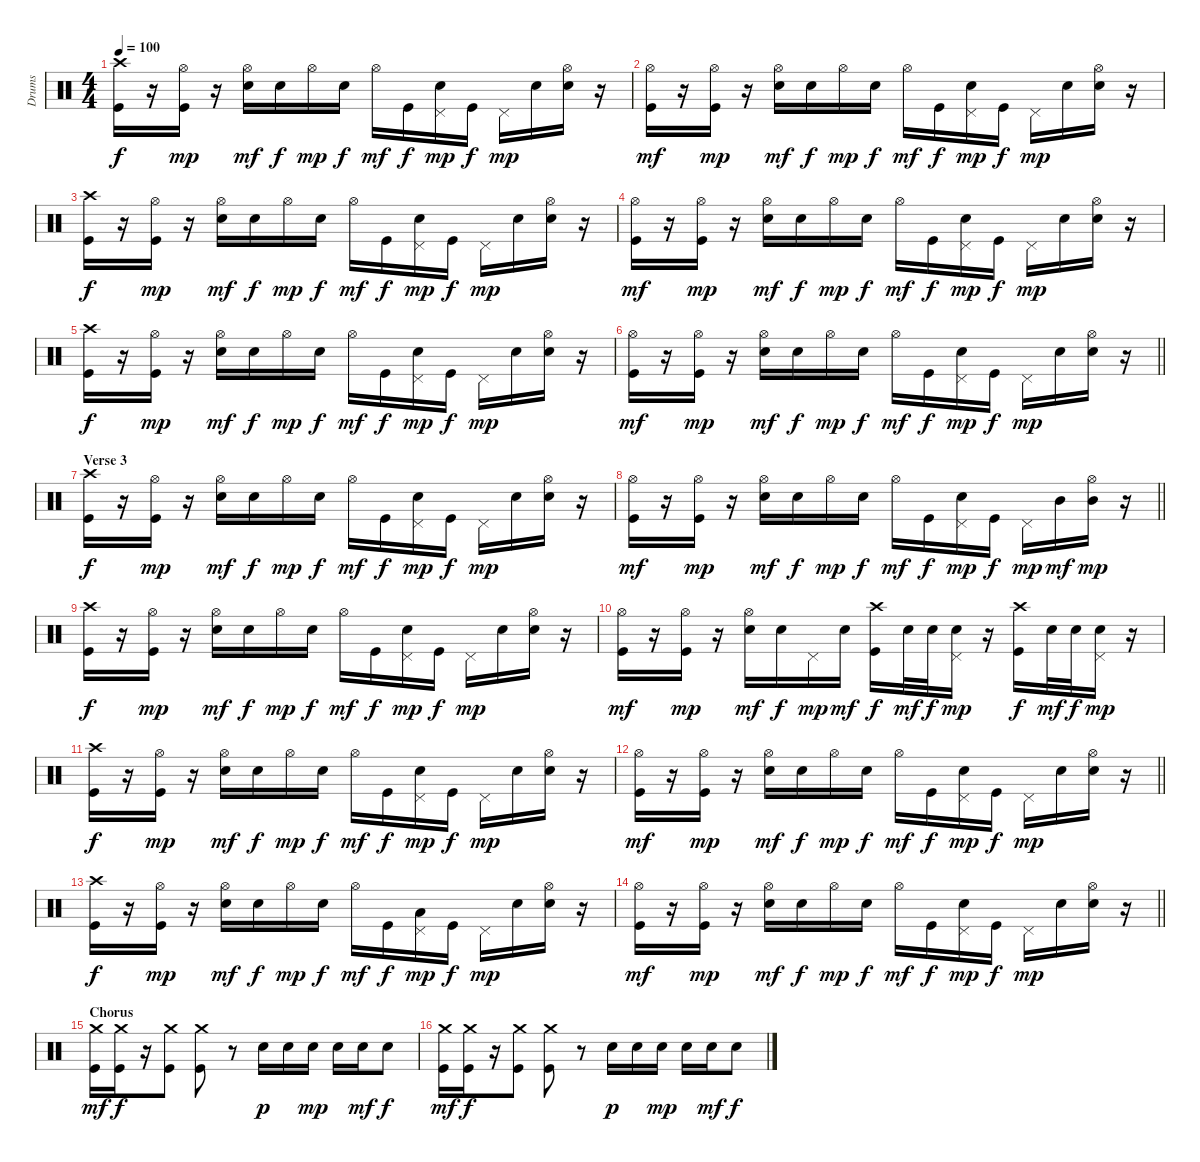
\track ("Drums" "Drums") {instrument percussion}
\staff {score}
\articulation defaults
\ts (4 4)
\tempo 100
\clef neutral
\ks c
("Crash high (hit)" "Kick (hit)").16{dy f} r.16 ("Hi-Hat (open)" "Kick (hit)").16{dy mp} r.16 ("Hi-Hat (open)" "Snare (hit) 2").16{dy mf} "Snare (hit) 2".16{dy f} "Hi-Hat (open)".16{dy mp} "Snare (hit) 2".16{dy f} "Hi-Hat (open)".16{dy mf} "Kick (hit)".16{dy f} ("Pedal Hi-Hat (hit)" "Snare (hit) 2").16{dy mp} "Kick (hit)".16{dy f} "Pedal Hi-Hat (hit)".16{dy mp} "Snare (hit) 2".16 ("Hi-Hat (open)" "Snare (hit) 2").16 r.16 |
("Hi-Hat (open)" "Kick (hit)").16{dy mf} r.16 ("Hi-Hat (open)" "Kick (hit)").16{dy mp} r.16 ("Hi-Hat (open)" "Snare (hit) 2").16{dy mf} "Snare (hit) 2".16{dy f} "Hi-Hat (open)".16{dy mp} "Snare (hit) 2".16{dy f} "Hi-Hat (open)".16{dy mf} "Kick (hit)".16{dy f} ("Pedal Hi-Hat (hit)" "Snare (hit) 2").16{dy mp} "Kick (hit)".16{dy f} "Pedal Hi-Hat (hit)".16{dy mp} "Snare (hit) 2".16 ("Hi-Hat (open)" "Snare (hit) 2").16 r.16 |
("Crash high (hit)" "Kick (hit)").16{dy f} r.16 ("Hi-Hat (open)" "Kick (hit)").16{dy mp} r.16 ("Hi-Hat (open)" "Snare (hit) 2").16{dy mf} "Snare (hit) 2".16{dy f} "Hi-Hat (open)".16{dy mp} "Snare (hit) 2".16{dy f} "Hi-Hat (open)".16{dy mf} "Kick (hit)".16{dy f} ("Pedal Hi-Hat (hit)" "Snare (hit) 2").16{dy mp} "Kick (hit)".16{dy f} "Pedal Hi-Hat (hit)".16{dy mp} "Snare (hit) 2".16 ("Hi-Hat (open)" "Snare (hit) 2").16 r.16 |
("Hi-Hat (open)" "Kick (hit)").16{dy mf} r.16 ("Hi-Hat (open)" "Kick (hit)").16{dy mp} r.16 ("Hi-Hat (open)" "Snare (hit) 2").16{dy mf} "Snare (hit) 2".16{dy f} "Hi-Hat (open)".16{dy mp} "Snare (hit) 2".16{dy f} "Hi-Hat (open)".16{dy mf} "Kick (hit)".16{dy f} ("Pedal Hi-Hat (hit)" "Snare (hit) 2").16{dy mp} "Kick (hit)".16{dy f} "Pedal Hi-Hat (hit)".16{dy mp} "Snare (hit) 2".16 ("Hi-Hat (open)" "Snare (hit) 2").16 r.16 |
("Crash high (hit)" "Kick (hit)").16{dy f} r.16 ("Hi-Hat (open)" "Kick (hit)").16{dy mp} r.16 ("Hi-Hat (open)" "Snare (hit) 2").16{dy mf} "Snare (hit) 2".16{dy f} "Hi-Hat (open)".16{dy mp} "Snare (hit) 2".16{dy f} "Hi-Hat (open)".16{dy mf} "Kick (hit)".16{dy f} ("Pedal Hi-Hat (hit)" "Snare (hit) 2").16{dy mp} "Kick (hit)".16{dy f} "Pedal Hi-Hat (hit)".16{dy mp} "Snare (hit) 2".16 ("Hi-Hat (open)" "Snare (hit) 2").16 r.16 |
\barLineRight lightlight
("Hi-Hat (open)" "Kick (hit)").16{dy mf} r.16 ("Hi-Hat (open)" "Kick (hit)").16{dy mp} r.16 ("Hi-Hat (open)" "Snare (hit) 2").16{dy mf} "Snare (hit) 2".16{dy f} "Hi-Hat (open)".16{dy mp} "Snare (hit) 2".16{dy f} "Hi-Hat (open)".16{dy mf} "Kick (hit)".16{dy f} ("Pedal Hi-Hat (hit)" "Snare (hit) 2").16{dy mp} "Kick (hit)".16{dy f} "Pedal Hi-Hat (hit)".16{dy mp} "Snare (hit) 2".16 ("Hi-Hat (open)" "Snare (hit) 2").16 r.16 |
\section ("" "Verse 3")
("Crash high (hit)" "Kick (hit)").16{dy f} r.16 ("Hi-Hat (open)" "Kick (hit)").16{dy mp} r.16 ("Hi-Hat (open)" "Snare (hit) 2").16{dy mf} "Snare (hit) 2".16{dy f} "Hi-Hat (open)".16{dy mp} "Snare (hit) 2".16{dy f} "Hi-Hat (open)".16{dy mf} "Kick (hit)".16{dy f} ("Pedal Hi-Hat (hit)" "Snare (hit) 2").16{dy mp} "Kick (hit)".16{dy f} "Pedal Hi-Hat (hit)".16{dy mp} "Snare (hit) 2".16 ("Hi-Hat (open)" "Snare (hit) 2").16 r.16 |
\barLineRight lightlight
("Hi-Hat (open)" "Kick (hit)").16{dy mf} r.16 ("Hi-Hat (open)" "Kick (hit)").16{dy mp} r.16 ("Hi-Hat (open)" "Snare (hit) 2").16{dy mf} "Snare (hit) 2".16{dy f} "Hi-Hat (open)".16{dy mp} "Snare (hit) 2".16{dy f} "Hi-Hat (open)".16{dy mf} "Kick (hit)".16{dy f} ("Pedal Hi-Hat (hit)" "Snare (hit) 2").16{dy mp} "Kick (hit)".16{dy f} "Pedal Hi-Hat (hit)".16{dy mp} "Mid Tom (hit)".16{dy mf} ("Hi-Hat (open)" "Mid Tom (hit)").16{dy mp} r.16 |
("Crash high (hit)" "Kick (hit)").16{dy f} r.16 ("Hi-Hat (open)" "Kick (hit)").16{dy mp} r.16 ("Hi-Hat (open)" "Snare (hit) 2").16{dy mf} "Snare (hit) 2".16{dy f} "Hi-Hat (open)".16{dy mp} "Snare (hit) 2".16{dy f} "Hi-Hat (open)".16{dy mf} "Kick (hit)".16{dy f} ("Pedal Hi-Hat (hit)" "Snare (hit) 2").16{dy mp} "Kick (hit)".16{dy f} "Pedal Hi-Hat (hit)".16{dy mp} "Snare (hit) 2".16 ("Hi-Hat (open)" "Snare (hit) 2").16 r.16 |
("Hi-Hat (open)" "Kick (hit)").16{dy mf} r.16 ("Hi-Hat (open)" "Kick (hit)").16{dy mp} r.16 ("Hi-Hat (open)" "Snare (hit) 2").16{dy mf} "Snare (hit) 2".16{dy f} "Pedal Hi-Hat (hit)".16{dy mp} "Snare (hit) 2".16{dy mf} ("Crash high (hit)" "Kick (hit)").16{dy f} "Snare (hit) 2".32{dy mf} "Snare (hit) 2".32{dy f} ("Pedal Hi-Hat (hit)" "Snare (hit) 2").16{dy mp} r.16 ("Crash high (hit)" "Kick (hit)").16{dy f} "Snare (hit) 2".32{dy mf} "Snare (hit) 2".32{dy f} ("Pedal Hi-Hat (hit)" "Snare (hit) 2").16{dy mp} r.16 |
("Crash high (hit)" "Kick (hit)").16{dy f} r.16 ("Hi-Hat (open)" "Kick (hit)").16{dy mp} r.16 ("Hi-Hat (open)" "Snare (hit) 2").16{dy mf} "Snare (hit) 2".16{dy f} "Hi-Hat (open)".16{dy mp} "Snare (hit) 2".16{dy f} "Hi-Hat (open)".16{dy mf} "Kick (hit)".16{dy f} ("Pedal Hi-Hat (hit)" "Snare (hit) 2").16{dy mp} "Kick (hit)".16{dy f} "Pedal Hi-Hat (hit)".16{dy mp} "Snare (hit) 2".16 ("Hi-Hat (open)" "Snare (hit) 2").16 r.16 |
\barLineRight lightlight
("Hi-Hat (open)" "Kick (hit)").16{dy mf} r.16 ("Hi-Hat (open)" "Kick (hit)").16{dy mp} r.16 ("Hi-Hat (open)" "Snare (hit) 2").16{dy mf} "Snare (hit) 2".16{dy f} "Hi-Hat (open)".16{dy mp} "Snare (hit) 2".16{dy f} "Hi-Hat (open)".16{dy mf} "Kick (hit)".16{dy f} ("Pedal Hi-Hat (hit)" "Snare (hit) 2").16{dy mp} "Kick (hit)".16{dy f} "Pedal Hi-Hat (hit)".16{dy mp} "Snare (hit) 2".16 ("Hi-Hat (open)" "Snare (hit) 2").16 r.16 |
("Crash high (hit)" "Kick (hit)").16{dy f} r.16 ("Hi-Hat (open)" "Kick (hit)").16{dy mp} r.16 ("Hi-Hat (open)" "Snare (hit) 2").16{dy mf} "Snare (hit) 2".16{dy f} "Hi-Hat (open)".16{dy mp} "Snare (hit) 2".16{dy f} "Hi-Hat (open)".16{dy mf} "Kick (hit)".16{dy f} ("Pedal Hi-Hat (hit)" "Low Tom (hit)").16{dy mp} "Kick (hit)".16{dy f} "Pedal Hi-Hat (hit)".16{dy mp} "Snare (hit) 2".16 ("Hi-Hat (open)" "Snare (hit) 2").16 r.16 |
\barLineRight lightlight
("Hi-Hat (open)" "Kick (hit)").16{dy mf} r.16 ("Hi-Hat (open)" "Kick (hit)").16{dy mp} r.16 ("Hi-Hat (open)" "Snare (hit) 2").16{dy mf} "Snare (hit) 2".16{dy f} "Hi-Hat (open)".16{dy mp} "Snare (hit) 2".16{dy f} "Hi-Hat (open)".16{dy mf} "Kick (hit)".16{dy f} ("Pedal Hi-Hat (hit)" "Snare (hit) 2").16{dy mp} "Kick (hit)".16{dy f} "Pedal Hi-Hat (hit)".16{dy mp} "Snare (hit) 2".16 ("Hi-Hat (open)" "Snare (hit) 2").16 r.16 |
\section ("" "Chorus")
("Crash medium (hit)" "Kick (hit)").16{dy mf} ("Crash medium (hit)" "Kick (hit)").16{dy f} r.16 ("Crash medium (hit)" "Kick (hit)").8 ("Crash medium (hit)" "Kick (hit)").8 r.8 "Snare (hit) 2".16{dy p} "Snare (hit) 2".16 "Snare (hit) 2".16{dy mp} "Snare (hit) 2".16 "Snare (hit) 2".16{dy mf} "Snare (hit) 2".8{dy f} |
("Crash medium (hit)" "Kick (hit)").16{dy mf} ("Crash medium (hit)" "Kick (hit)").16{dy f} r.16 ("Crash medium (hit)" "Kick (hit)").8 ("Crash medium (hit)" "Kick (hit)").8 r.8 "Snare (hit) 2".16{dy p} "Snare (hit) 2".16 "Snare (hit) 2".16{dy mp} "Snare (hit) 2".16 "Snare (hit) 2".16{dy mf} "Snare (hit) 2".8{dy f}
